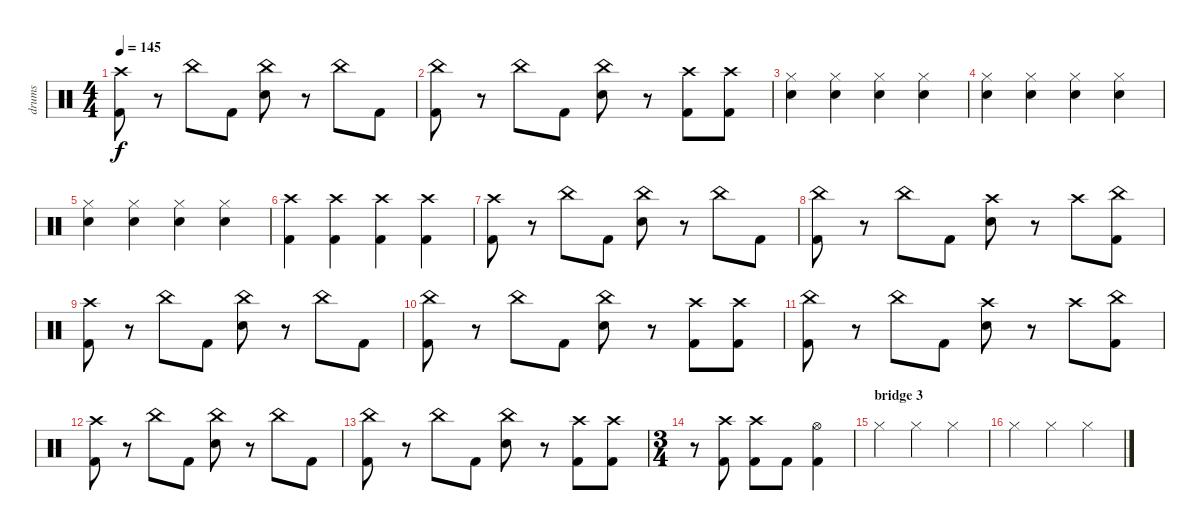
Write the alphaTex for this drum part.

\track ("drums" "drums") {instrument percussion}
\staff {score}
\articulation defaults
\ts (4 4)
\tempo 145
\clef neutral
\ks c
("Kick (hit) 2" "Crash high (hit)").8{dy f} r.8 "China (hit)".8 "Kick (hit) 2".8 ("Snare (hit) 2" "China (hit)").8 r.8 "China (hit)".8 "Kick (hit) 2".8 |
("Kick (hit) 2" "China (hit)").8 r.8 "China (hit)".8 "Kick (hit) 2".8 ("Snare (hit) 2" "China (hit)").8 r.8 ("Kick (hit) 2" "Crash high (hit)").8 ("Kick (hit) 2" "Crash high (hit)").8 |
("Snare (hit) 2" "Hi-Hat (closed)").4 ("Snare (hit) 2" "Hi-Hat (closed)").4 ("Snare (hit) 2" "Hi-Hat (closed)").4 ("Snare (hit) 2" "Hi-Hat (closed)").4 |
("Snare (hit) 2" "Hi-Hat (closed)").4 ("Snare (hit) 2" "Hi-Hat (closed)").4 ("Snare (hit) 2" "Hi-Hat (closed)").4 ("Snare (hit) 2" "Hi-Hat (closed)").4 |
("Snare (hit) 2" "Hi-Hat (closed)").4 ("Snare (hit) 2" "Hi-Hat (closed)").4 ("Snare (hit) 2" "Hi-Hat (closed)").4 ("Snare (hit) 2" "Hi-Hat (closed)").4 |
("Kick (hit) 2" "Crash high (hit)").4 ("Kick (hit) 2" "Crash high (hit)").4 ("Kick (hit) 2" "Crash high (hit)").4 ("Kick (hit) 2" "Crash high (hit)").4 |
("Kick (hit) 2" "Crash high (hit)").8 r.8 "China (hit)".8 "Kick (hit) 2".8 ("Snare (hit) 2" "China (hit)").8 r.8 "China (hit)".8 "Kick (hit) 2".8 |
("Kick (hit) 2" "China (hit)").8 r.8 "China (hit)".8 "Kick (hit) 2".8 ("Snare (hit) 2" "Crash high (hit)").8 r.8 "Crash high (hit)".8 ("Kick (hit) 2" "China (hit)").8 |
("Kick (hit) 2" "Crash high (hit)").8 r.8 "China (hit)".8 "Kick (hit) 2".8 ("Snare (hit) 2" "China (hit)").8 r.8 "China (hit)".8 "Kick (hit) 2".8 |
("Kick (hit) 2" "China (hit)").8 r.8 "China (hit)".8 "Kick (hit) 2".8 ("Snare (hit) 2" "China (hit)").8 r.8 ("Kick (hit) 2" "Crash high (hit)").8 ("Kick (hit) 2" "Crash high (hit)").8 |
("Kick (hit) 2" "China (hit)").8 r.8 "China (hit)".8 "Kick (hit) 2".8 ("Snare (hit) 2" "Crash high (hit)").8 r.8 "Crash high (hit)".8 ("Kick (hit) 2" "China (hit)").8 |
("Kick (hit) 2" "Crash high (hit)").8 r.8 "China (hit)".8 "Kick (hit) 2".8 ("Snare (hit) 2" "China (hit)").8 r.8 "China (hit)".8 "Kick (hit) 2".8 |
("Kick (hit) 2" "China (hit)").8 r.8 "China (hit)".8 "Kick (hit) 2".8 ("Snare (hit) 2" "China (hit)").8 r.8 ("Kick (hit) 2" "Crash high (hit)").8 ("Kick (hit) 2" "Crash high (hit)").8 |
\ts (3 4)
r.8 ("Kick (hit) 2" "Crash high (hit)").8 ("Kick (hit) 2" "Crash high (hit)").8 "Kick (hit) 2".8 ("Kick (hit) 2" "Hi-Hat (open)").4 |
\section ("" "bridge 3")
"Hi-Hat (closed)".4 "Hi-Hat (closed)".4 "Hi-Hat (closed)".4 |
"Hi-Hat (closed)".4 "Hi-Hat (closed)".4 "Hi-Hat (closed)".4
